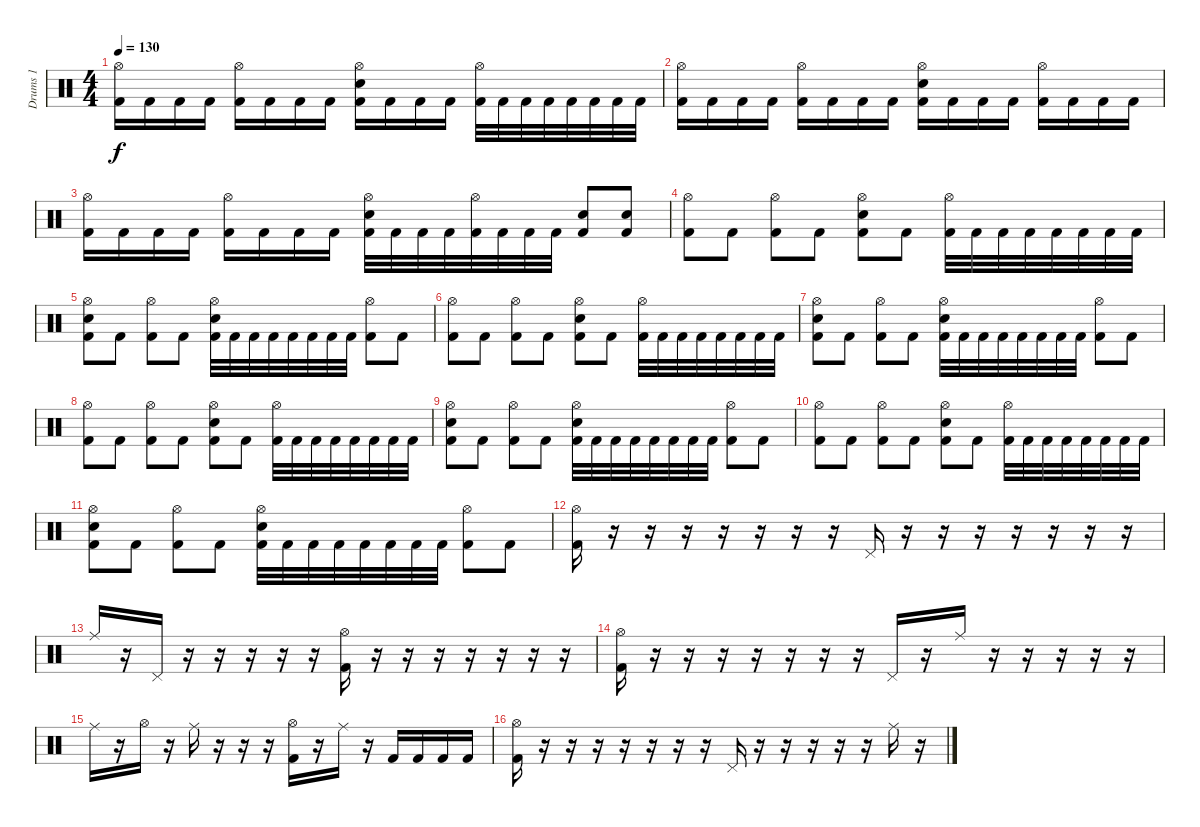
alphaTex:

\track ("Drums 1" "Drums 1") {instrument percussion}
\staff {score}
\articulation defaults
\ts (4 4)
\tempo 130
\clef neutral
\ks c
("Hi-Hat (open)" "Kick (hit) 2").16{dy f} "Kick (hit) 2".16 "Kick (hit) 2".16 "Kick (hit) 2".16 ("Hi-Hat (open)" "Kick (hit) 2").16 "Kick (hit) 2".16 "Kick (hit) 2".16 "Kick (hit) 2".16 ("Hi-Hat (open)" "Snare (hit) 2" "Kick (hit) 2").16 "Kick (hit) 2".16 "Kick (hit) 2".16 "Kick (hit) 2".16 ("Hi-Hat (open)" "Kick (hit) 2").32 "Kick (hit) 2".32 "Kick (hit) 2".32 "Kick (hit) 2".32 "Kick (hit) 2".32 "Kick (hit) 2".32 "Kick (hit) 2".32 "Kick (hit) 2".32 |
("Hi-Hat (open)" "Kick (hit) 2").16 "Kick (hit) 2".16 "Kick (hit) 2".16 "Kick (hit) 2".16 ("Hi-Hat (open)" "Kick (hit) 2").16 "Kick (hit) 2".16 "Kick (hit) 2".16 "Kick (hit) 2".16 ("Hi-Hat (open)" "Snare (hit) 2" "Kick (hit) 2").16 "Kick (hit) 2".16 "Kick (hit) 2".16 "Kick (hit) 2".16 ("Hi-Hat (open)" "Kick (hit) 2").16 "Kick (hit) 2".16 "Kick (hit) 2".16 "Kick (hit) 2".16 |
("Hi-Hat (open)" "Kick (hit) 2").16 "Kick (hit) 2".16 "Kick (hit) 2".16 "Kick (hit) 2".16 ("Hi-Hat (open)" "Kick (hit) 2").16 "Kick (hit) 2".16 "Kick (hit) 2".16 "Kick (hit) 2".16 ("Hi-Hat (open)" "Snare (hit) 2" "Kick (hit) 2").32 "Kick (hit) 2".32 "Kick (hit) 2".32 "Kick (hit) 2".32 ("Hi-Hat (open)" "Kick (hit) 2").32 "Kick (hit) 2".32 "Kick (hit) 2".32 "Kick (hit) 2".32 ("Snare (hit) 2" "Kick (hit) 2").8 ("Snare (hit) 2" "Kick (hit) 2").8 |
("Hi-Hat (open)" "Kick (hit) 2").8 "Kick (hit) 2".8 ("Hi-Hat (open)" "Kick (hit) 2").8 "Kick (hit) 2".8 ("Hi-Hat (open)" "Snare (hit) 2" "Kick (hit) 2").8 "Kick (hit) 2".8 ("Hi-Hat (open)" "Kick (hit) 2").32 "Kick (hit) 2".32 "Kick (hit) 2".32 "Kick (hit) 2".32 "Kick (hit) 2".32 "Kick (hit) 2".32 "Kick (hit) 2".32 "Kick (hit) 2".32 |
("Hi-Hat (open)" "Snare (hit) 2" "Kick (hit) 2").8 "Kick (hit) 2".8 ("Hi-Hat (open)" "Kick (hit) 2").8 "Kick (hit) 2".8 ("Hi-Hat (open)" "Snare (hit) 2" "Kick (hit) 2").32 "Kick (hit) 2".32 "Kick (hit) 2".32 "Kick (hit) 2".32 "Kick (hit) 2".32 "Kick (hit) 2".32 "Kick (hit) 2".32 "Kick (hit) 2".32 ("Hi-Hat (open)" "Kick (hit) 2").8 "Kick (hit) 2".8 |
("Hi-Hat (open)" "Kick (hit) 2").8 "Kick (hit) 2".8 ("Hi-Hat (open)" "Kick (hit) 2").8 "Kick (hit) 2".8 ("Hi-Hat (open)" "Snare (hit) 2" "Kick (hit) 2").8 "Kick (hit) 2".8 ("Hi-Hat (open)" "Kick (hit) 2").32 "Kick (hit) 2".32 "Kick (hit) 2".32 "Kick (hit) 2".32 "Kick (hit) 2".32 "Kick (hit) 2".32 "Kick (hit) 2".32 "Kick (hit) 2".32 |
("Hi-Hat (open)" "Snare (hit) 2" "Kick (hit) 2").8 "Kick (hit) 2".8 ("Hi-Hat (open)" "Kick (hit) 2").8 "Kick (hit) 2".8 ("Hi-Hat (open)" "Snare (hit) 2" "Kick (hit) 2").32 "Kick (hit) 2".32 "Kick (hit) 2".32 "Kick (hit) 2".32 "Kick (hit) 2".32 "Kick (hit) 2".32 "Kick (hit) 2".32 "Kick (hit) 2".32 ("Hi-Hat (open)" "Kick (hit) 2").8 "Kick (hit) 2".8 |
("Hi-Hat (open)" "Kick (hit) 2").8 "Kick (hit) 2".8 ("Hi-Hat (open)" "Kick (hit) 2").8 "Kick (hit) 2".8 ("Hi-Hat (open)" "Snare (hit) 2" "Kick (hit) 2").8 "Kick (hit) 2".8 ("Hi-Hat (open)" "Kick (hit) 2").32 "Kick (hit) 2".32 "Kick (hit) 2".32 "Kick (hit) 2".32 "Kick (hit) 2".32 "Kick (hit) 2".32 "Kick (hit) 2".32 "Kick (hit) 2".32 |
("Hi-Hat (open)" "Snare (hit) 2" "Kick (hit) 2").8 "Kick (hit) 2".8 ("Hi-Hat (open)" "Kick (hit) 2").8 "Kick (hit) 2".8 ("Hi-Hat (open)" "Snare (hit) 2" "Kick (hit) 2").32 "Kick (hit) 2".32 "Kick (hit) 2".32 "Kick (hit) 2".32 "Kick (hit) 2".32 "Kick (hit) 2".32 "Kick (hit) 2".32 "Kick (hit) 2".32 ("Hi-Hat (open)" "Kick (hit) 2").8 "Kick (hit) 2".8 |
("Hi-Hat (open)" "Kick (hit) 2").8 "Kick (hit) 2".8 ("Hi-Hat (open)" "Kick (hit) 2").8 "Kick (hit) 2".8 ("Hi-Hat (open)" "Snare (hit) 2" "Kick (hit) 2").8 "Kick (hit) 2".8 ("Hi-Hat (open)" "Kick (hit) 2").32 "Kick (hit) 2".32 "Kick (hit) 2".32 "Kick (hit) 2".32 "Kick (hit) 2".32 "Kick (hit) 2".32 "Kick (hit) 2".32 "Kick (hit) 2".32 |
("Hi-Hat (open)" "Snare (hit) 2" "Kick (hit) 2").8 "Kick (hit) 2".8 ("Hi-Hat (open)" "Kick (hit) 2").8 "Kick (hit) 2".8 ("Hi-Hat (open)" "Snare (hit) 2" "Kick (hit) 2").32 "Kick (hit) 2".32 "Kick (hit) 2".32 "Kick (hit) 2".32 "Kick (hit) 2".32 "Kick (hit) 2".32 "Kick (hit) 2".32 "Kick (hit) 2".32 ("Hi-Hat (open)" "Kick (hit) 2").8 "Kick (hit) 2".8 |
("Hi-Hat (open)" "Kick (hit) 2").16 r.16 r.16 r.16 r.16 r.16 r.16 r.16 "Pedal Hi-Hat (hit)".16 r.16 r.16 r.16 r.16 r.16 r.16 r.16 |
"Ride (middle)".16 r.16 "Pedal Hi-Hat (hit)".16 r.16 r.16 r.16 r.16 r.16 ("Hi-Hat (open)" "Kick (hit) 2").16 r.16 r.16 r.16 r.16 r.16 r.16 r.16 |
("Hi-Hat (open)" "Kick (hit) 2").16 r.16 r.16 r.16 r.16 r.16 r.16 r.16 "Pedal Hi-Hat (hit)".16 r.16 "Ride (middle)".16 r.16 r.16 r.16 r.16 r.16 |
"Ride (middle)".16 r.16 "Hi-Hat (open)".16 r.16 "Ride (middle)".16 r.16 r.16 r.16 ("Hi-Hat (open)" "Kick (hit) 2").16 r.16 "Ride (middle)".16 r.16 "Kick (hit) 2".16 "Kick (hit) 2".16 "Kick (hit) 2".16 "Kick (hit) 2".16 |
("Hi-Hat (open)" "Kick (hit) 2").16 r.16 r.16 r.16 r.16 r.16 r.16 r.16 "Pedal Hi-Hat (hit)".16 r.16 r.16 r.16 r.16 r.16 "Ride (middle)".16 r.16
